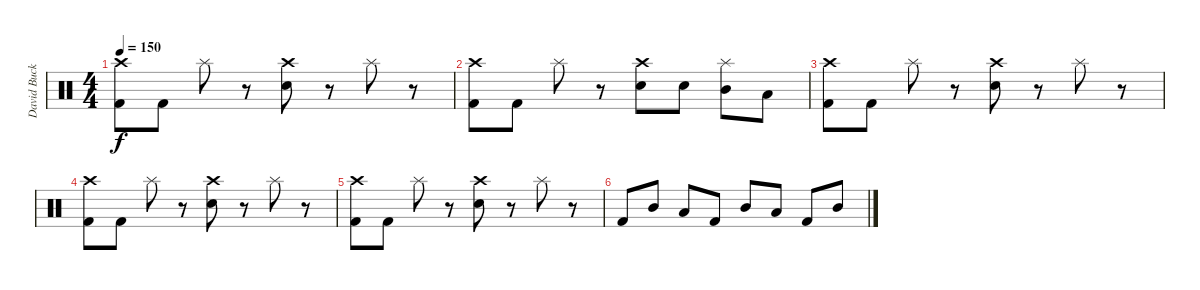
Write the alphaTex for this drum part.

\track ("David Buckner" "David Buck") {instrument percussion}
\staff {score}
\articulation defaults
\ts (4 4)
\tempo 150
\clef neutral
\ks c
("Crash high (hit)" "Kick (hit) 2").8{dy f} "Kick (hit) 2".8 "Splash (hit)".8 r.8 ("Crash high (hit)" "Snare (hit) 2").8 r.8 "Splash (hit)".8 r.8 |
("Crash high (hit)" "Kick (hit) 2").8 "Kick (hit) 2".8 "Splash (hit)".8 r.8 ("Crash high (hit)" "Snare (hit) 2").8 "Snare (hit) 2".8 ("Splash (hit)" "Mid Tom (hit)").8 "Low Tom (hit)".8 |
("Crash high (hit)" "Kick (hit) 2").8 "Kick (hit) 2".8 "Splash (hit)".8 r.8 ("Crash high (hit)" "Snare (hit) 2").8 r.8 "Splash (hit)".8 r.8 |
("Crash high (hit)" "Kick (hit) 2").8 "Kick (hit) 2".8 "Splash (hit)".8 r.8 ("Crash high (hit)" "Snare (hit) 2").8 r.8 "Splash (hit)".8 r.8 |
("Crash high (hit)" "Kick (hit) 2").8 "Kick (hit) 2".8 "Splash (hit)".8 r.8 ("Crash high (hit)" "Snare (hit) 2").8 r.8 "Splash (hit)".8 r.8 |
"Kick (hit) 2".8 "Mid Tom (hit)".8 "Low Tom (hit)".8 "Kick (hit) 2".8 "Mid Tom (hit)".8 "Low Tom (hit)".8 "Kick (hit) 2".8 "Mid Tom (hit)".8
